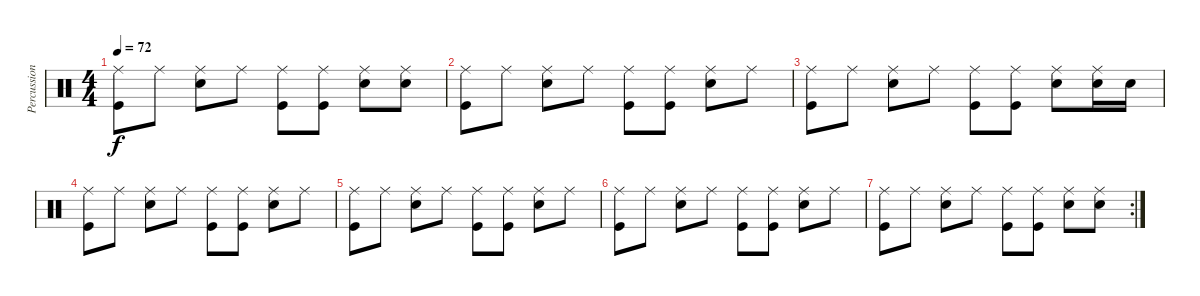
\track ("Percussions" "Percussion") {instrument percussion}
\staff {score}
\articulation defaults
\ts (4 4)
\tempo 72
\clef neutral
\ks c
("Ride (middle)" "Kick (hit)").8{dy f} "Ride (middle)".8 ("Ride (middle)" "Snare (hit) 2").8 "Ride (middle)".8 ("Ride (middle)" "Kick (hit)").8 ("Ride (middle)" "Kick (hit)").8 ("Ride (middle)" "Snare (hit) 2").8 ("Ride (middle)" "Snare (hit) 2").8 |
("Ride (middle)" "Kick (hit)").8 "Ride (middle)".8 ("Ride (middle)" "Snare (hit) 2").8 "Ride (middle)".8 ("Ride (middle)" "Kick (hit)").8 ("Ride (middle)" "Kick (hit)").8 ("Ride (middle)" "Snare (hit) 2").8 "Ride (middle)".8 |
("Ride (middle)" "Kick (hit)").8 "Ride (middle)".8 ("Ride (middle)" "Snare (hit) 2").8 "Ride (middle)".8 ("Ride (middle)" "Kick (hit)").8 ("Ride (middle)" "Kick (hit)").8 ("Ride (middle)" "Snare (hit) 2").8 ("Ride (middle)" "Snare (hit) 2").16 "Snare (hit) 2".16 |
("Ride (middle)" "Kick (hit)").8 "Ride (middle)".8 ("Ride (middle)" "Snare (hit) 2").8 "Ride (middle)".8 ("Ride (middle)" "Kick (hit)").8 ("Ride (middle)" "Kick (hit)").8 ("Ride (middle)" "Snare (hit) 2").8 "Ride (middle)".8 |
("Ride (middle)" "Kick (hit)").8 "Ride (middle)".8 ("Ride (middle)" "Snare (hit) 2").8 "Ride (middle)".8 ("Ride (middle)" "Kick (hit)").8 ("Ride (middle)" "Kick (hit)").8 ("Ride (middle)" "Snare (hit) 2").8 "Ride (middle)".8 |
("Ride (middle)" "Kick (hit)").8 "Ride (middle)".8 ("Ride (middle)" "Snare (hit) 2").8 "Ride (middle)".8 ("Ride (middle)" "Kick (hit)").8 ("Ride (middle)" "Kick (hit)").8 ("Ride (middle)" "Snare (hit) 2").8 "Ride (middle)".8 |
\rc 2
("Ride (middle)" "Kick (hit)").8 "Ride (middle)".8 ("Ride (middle)" "Snare (hit) 2").8 "Ride (middle)".8 ("Ride (middle)" "Kick (hit)").8 ("Ride (middle)" "Kick (hit)").8 ("Ride (middle)" "Snare (hit) 2").8 ("Ride (middle)" "Snare (hit) 2").8
